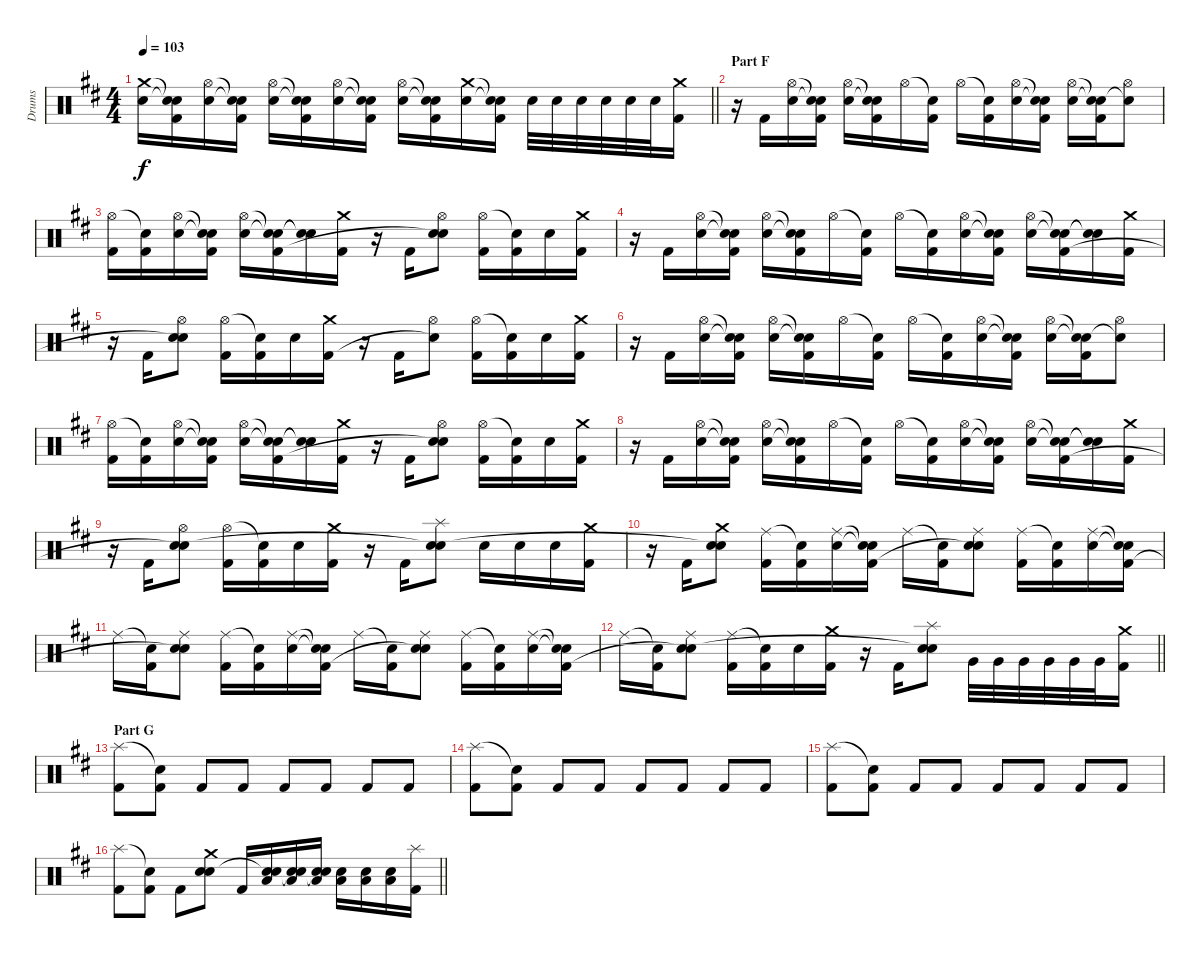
\track ("Drums" "Drums") {instrument percussion}
\staff {score}
\articulation defaults
\ts (4 4)
\tempo 103
\clef neutral
\barLineRight lightlight
\ks d
("Crash medium (hit)" "Electric Snare (hit)").16{dy f} ("Snare (hit)"{t} "Snare (hit)"{t} "Kick (hit) 2").16 ("Hi-Hat (open)" "Electric Snare (hit)").16 ("Snare (hit)"{t} "Snare (hit)"{t} "Kick (hit) 2").16 ("Hi-Hat (open)" "Electric Snare (hit)").16 ("Snare (hit)"{t} "Snare (hit)"{t} "Kick (hit) 2").16 ("Hi-Hat (open)" "Electric Snare (hit)").16 ("Snare (hit)"{t} "Snare (hit)"{t} "Kick (hit) 2").16 ("Hi-Hat (open)" "Electric Snare (hit)").16 ("Snare (hit)"{t} "Snare (hit)"{t} "Kick (hit) 2").16 ("Crash medium (hit)" "Electric Snare (hit)").16 ("Snare (hit)"{t} "Snare (hit)"{t} "Kick (hit) 2").16 "Electric Snare (hit)".32 "Electric Snare (hit)".32 "Electric Snare (hit)".32 "Electric Snare (hit)".32 "Electric Snare (hit)".32 "Electric Snare (hit)".32 ("Crash medium (hit)" "Kick (hit) 2").16 |
\section ("" "Part F")
r.16 "Kick (hit) 2".16 ("Hi-Hat (open)" "Electric Snare (hit)").16 ("Snare (hit)"{t} "Snare (hit)"{t} "Kick (hit) 2").16 ("Hi-Hat (open)" "Electric Snare (hit)").16 ("Snare (hit)"{t} "Snare (hit)"{t} "Kick (hit) 2").16 "Hi-Hat (open)".16 ("Snare (hit)"{t} "Kick (hit) 2").16 "Hi-Hat (open)".16 ("Snare (hit)"{t} "Kick (hit) 2").16 ("Hi-Hat (open)" "Electric Snare (hit)").16 ("Snare (hit)"{t} "Snare (hit)"{t} "Kick (hit) 2").16 ("Hi-Hat (open)" "Electric Snare (hit)").16 ("Snare (hit)"{t} "Snare (hit)"{t} "Kick (hit) 2").16 ("Hi-Hat (open)" "Snare (hit)"{t}).8 |
("Hi-Hat (open)" "Kick (hit) 2").16 ("Snare (hit)"{t} "Kick (hit) 2").16 ("Hi-Hat (open)" "Electric Snare (hit)").16 ("Snare (hit)"{t} "Snare (hit)"{t} "Kick (hit) 2").16 ("Hi-Hat (open)" "Electric Snare (hit)").16 ("Snare (hit)"{t} "Snare (hit)"{t} "Kick (hit) 2").16 ("Snare (hit)"{t} "Snare (hit)"{t}).16 ("Crash medium (hit)" "Kick (hit) 2").16 r.16 "Kick (hit) 2".16 ("Hi-Hat (open)" "Electric Snare (hit)" "Snare (hit)"{t}).8 ("Hi-Hat (open)" "Kick (hit) 2").16 ("Snare (hit)"{t} "Kick (hit) 2").16 "Electric Snare (hit)".16 ("Crash medium (hit)" "Kick (hit) 2").16 |
r.16 "Kick (hit) 2".16 ("Hi-Hat (open)" "Electric Snare (hit)").16 ("Snare (hit)"{t} "Snare (hit)"{t} "Kick (hit) 2").16 ("Hi-Hat (open)" "Electric Snare (hit)").16 ("Snare (hit)"{t} "Snare (hit)"{t} "Kick (hit) 2").16 "Hi-Hat (open)".16 ("Snare (hit)"{t} "Kick (hit) 2").16 "Hi-Hat (open)".16 ("Snare (hit)"{t} "Kick (hit) 2").16 ("Hi-Hat (open)" "Electric Snare (hit)").16 ("Snare (hit)"{t} "Snare (hit)"{t} "Kick (hit) 2").16 ("Hi-Hat (open)" "Electric Snare (hit)").16 ("Snare (hit)"{t} "Snare (hit)"{t} "Kick (hit) 2").16 ("Snare (hit)"{t} "Snare (hit)"{t}).16 ("Crash medium (hit)" "Kick (hit) 2").16 |
r.16 "Kick (hit) 2".16 ("Hi-Hat (open)" "Electric Snare (hit)" "Snare (hit)"{t}).8 ("Hi-Hat (open)" "Kick (hit) 2").16 ("Snare (hit)"{t} "Kick (hit) 2").16 "Electric Snare (hit)".16 ("Crash medium (hit)" "Kick (hit) 2").16 r.16 "Kick (hit) 2".16 ("Hi-Hat (open)" "Snare (hit)"{t}).8 ("Hi-Hat (open)" "Kick (hit) 2").16 ("Snare (hit)"{t} "Kick (hit) 2").16 "Electric Snare (hit)".16 ("Crash medium (hit)" "Kick (hit) 2").16 |
r.16 "Kick (hit) 2".16 ("Hi-Hat (open)" "Electric Snare (hit)").16 ("Snare (hit)"{t} "Snare (hit)"{t} "Kick (hit) 2").16 ("Hi-Hat (open)" "Electric Snare (hit)").16 ("Snare (hit)"{t} "Snare (hit)"{t} "Kick (hit) 2").16 "Hi-Hat (open)".16 ("Snare (hit)"{t} "Kick (hit) 2").16 "Hi-Hat (open)".16 ("Snare (hit)"{t} "Kick (hit) 2").16 ("Hi-Hat (open)" "Electric Snare (hit)").16 ("Snare (hit)"{t} "Snare (hit)"{t} "Kick (hit) 2").16 ("Hi-Hat (open)" "Electric Snare (hit)").16 ("Snare (hit)"{t} "Snare (hit)"{t} "Kick (hit) 2").16 ("Hi-Hat (open)" "Snare (hit)"{t}).8 |
("Hi-Hat (open)" "Kick (hit) 2").16 ("Snare (hit)"{t} "Kick (hit) 2").16 ("Hi-Hat (open)" "Electric Snare (hit)").16 ("Snare (hit)"{t} "Snare (hit)"{t} "Kick (hit) 2").16 ("Hi-Hat (open)" "Electric Snare (hit)").16 ("Snare (hit)"{t} "Snare (hit)"{t} "Kick (hit) 2").16 ("Snare (hit)"{t} "Snare (hit)"{t}).16 ("Crash medium (hit)" "Kick (hit) 2").16 r.16 "Kick (hit) 2".16 ("Hi-Hat (open)" "Electric Snare (hit)" "Snare (hit)"{t}).8 ("Hi-Hat (open)" "Kick (hit) 2").16 ("Snare (hit)"{t} "Kick (hit) 2").16 "Electric Snare (hit)".16 ("Crash medium (hit)" "Kick (hit) 2").16 |
r.16 "Kick (hit) 2".16 ("Hi-Hat (open)" "Electric Snare (hit)").16 ("Snare (hit)"{t} "Snare (hit)"{t} "Kick (hit) 2").16 ("Hi-Hat (open)" "Electric Snare (hit)").16 ("Snare (hit)"{t} "Snare (hit)"{t} "Kick (hit) 2").16 "Hi-Hat (open)".16 ("Snare (hit)"{t} "Kick (hit) 2").16 "Hi-Hat (open)".16 ("Snare (hit)"{t} "Kick (hit) 2").16 ("Hi-Hat (open)" "Electric Snare (hit)").16 ("Snare (hit)"{t} "Snare (hit)"{t} "Kick (hit) 2").16 ("Hi-Hat (open)" "Electric Snare (hit)").16 ("Snare (hit)"{t} "Snare (hit)"{t} "Kick (hit) 2").16 ("Snare (hit)"{t} "Snare (hit)"{t}).16 ("Crash medium (hit)" "Kick (hit) 2").16 |
r.16 "Kick (hit) 2".16 ("Hi-Hat (open)" "Electric Snare (hit)" "Snare (hit)"{t}).8 ("Hi-Hat (open)" "Kick (hit) 2").16 ("Snare (hit)"{t} "Kick (hit) 2").16 "Electric Snare (hit)".16 ("Crash medium (hit)" "Kick (hit) 2").16 r.16 "Kick (hit) 2".16 ("Splash (hit)" "Electric Snare (hit)" "Snare (hit)"{t}).8 "Electric Snare (hit)".16 "Electric Snare (hit)".16 "Electric Snare (hit)".16 ("Crash medium (hit)" "Kick (hit) 2").16 |
r.16 "Kick (hit) 2".16 ("Crash medium (hit)" "Electric Snare (hit)" "Snare (hit)"{t}).8 ("Ride (middle)" "Kick (hit) 2").16 ("Snare (hit)"{t} "Kick (hit) 2").16 ("Ride (middle)" "Electric Snare (hit)").16 ("Snare (hit)"{t} "Snare (hit)"{t} "Kick (hit) 2").16 "Ride (middle)".16 ("Snare (hit)"{t} "Kick (hit) 2").16 ("Ride (middle)" "Electric Snare (hit)" "Snare (hit)"{t}).8 ("Ride (middle)" "Kick (hit) 2").16 ("Snare (hit)"{t} "Kick (hit) 2").16 ("Ride (middle)" "Electric Snare (hit)").16 ("Snare (hit)"{t} "Snare (hit)"{t} "Kick (hit) 2").16 |
"Ride (middle)".16 ("Snare (hit)"{t} "Kick (hit) 2").16 ("Ride (middle)" "Electric Snare (hit)" "Snare (hit)"{t}).8 ("Ride (middle)" "Kick (hit) 2").16 ("Snare (hit)"{t} "Kick (hit) 2").16 ("Ride (middle)" "Electric Snare (hit)").16 ("Snare (hit)"{t} "Snare (hit)"{t} "Kick (hit) 2").16 "Ride (middle)".16 ("Snare (hit)"{t} "Kick (hit) 2").16 ("Ride (middle)" "Electric Snare (hit)" "Snare (hit)"{t}).8 ("Ride (middle)" "Kick (hit) 2").16 ("Snare (hit)"{t} "Kick (hit) 2").16 ("Ride (middle)" "Electric Snare (hit)").16 ("Snare (hit)"{t} "Snare (hit)"{t} "Kick (hit) 2").16 |
\barLineRight lightlight "Ride (middle)".16
("Snare (hit)"{t} "Kick (hit) 2").16 ("Ride (middle)" "Electric Snare (hit)" "Snare (hit)"{t}).8 ("Ride (middle)" "Kick (hit) 2").16 ("Snare (hit)"{t} "Kick (hit) 2").16 "Electric Snare (hit)".16 ("Crash medium (hit)" "Kick (hit) 2").16 r.16 "Kick (hit) 2".16 ("Splash (hit)" "Electric Snare (hit)" "Snare (hit)"{t}).8 "Very Low Tom (hit)".32 "Very Low Tom (hit)".32 "Very Low Tom (hit)".32 "Very Low Tom (hit)".32 "Very Low Tom (hit)".32 "Very Low Tom (hit)".32 ("Crash medium (hit)" "Kick (hit) 2").16 |
\section ("" "Part G")
("Splash (hit)" "Kick (hit) 2").8 ("Snare (hit)"{t} "Kick (hit) 2").8 "Kick (hit) 2".8 "Kick (hit) 2".8 "Kick (hit) 2".8 "Kick (hit) 2".8 "Kick (hit) 2".8 "Kick (hit) 2".8 |
("Splash (hit)" "Kick (hit) 2").8 ("Snare (hit)"{t} "Kick (hit) 2").8 "Kick (hit) 2".8 "Kick (hit) 2".8 "Kick (hit) 2".8 "Kick (hit) 2".8 "Kick (hit) 2".8 "Kick (hit) 2".8 |
("Splash (hit)" "Kick (hit) 2").8 ("Snare (hit)"{t} "Kick (hit) 2").8 "Kick (hit) 2".8 "Kick (hit) 2".8 "Kick (hit) 2".8 "Kick (hit) 2".8 "Kick (hit) 2".8 "Kick (hit) 2".8 |
\barLineRight lightlight
("Splash (hit)" "Kick (hit) 2").8 ("Snare (hit)"{t} "Kick (hit) 2").8 "Kick (hit) 2".8 ("Crash medium (hit)" "Electric Snare (hit)" "Snare (hit)").8 "Kick (hit) 2".16 ("Electric Snare (hit)" "Low Floor Tom (hit)" "Snare (hit)"{t}).16 ("Electric Snare (hit)" "Low Floor Tom (hit)" "Snare (hit)"{t}).16 ("Electric Snare (hit)" "Low Floor Tom (hit)" "Snare (hit)"{t}).16 ("Electric Snare (hit)" "Low Floor Tom (hit)").16 ("Electric Snare (hit)" "Low Floor Tom (hit)").16 ("Electric Snare (hit)" "Low Floor Tom (hit)").16 ("Splash (hit)" "Kick (hit) 2").16
